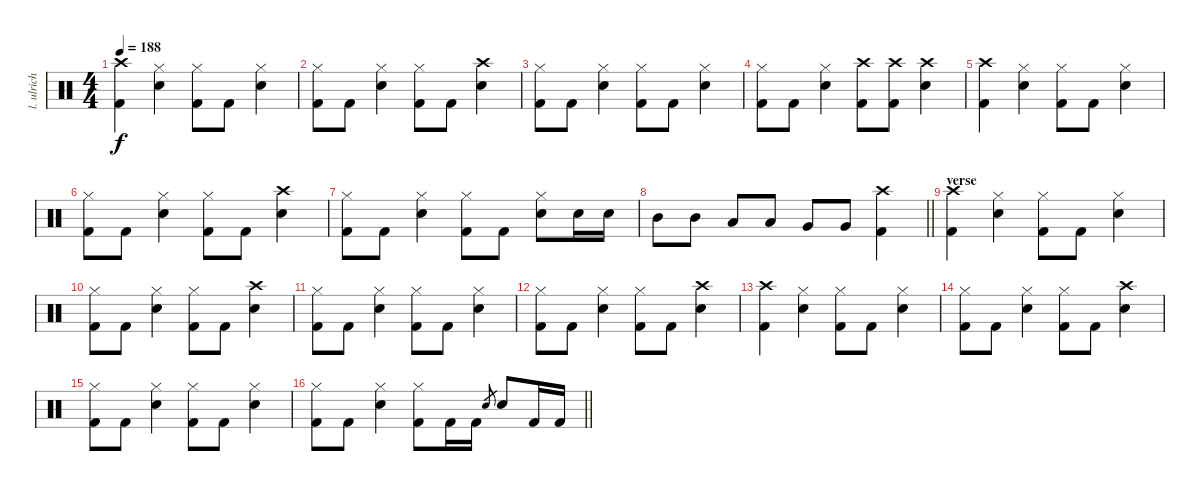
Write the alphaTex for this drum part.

\track ("l. ulrich - drums" "l. ulrich ") {instrument percussion}
\staff {score}
\articulation defaults
\ts (4 4)
\tempo 188
\clef neutral
\ks c
("Crash high (hit)" "Kick (hit) 2").4{dy f} ("Hi-Hat (closed)" "Snare (hit) 2").4 ("Hi-Hat (closed)" "Kick (hit) 2").8 "Kick (hit) 2".8 ("Hi-Hat (closed)" "Snare (hit) 2").4 |
("Hi-Hat (closed)" "Kick (hit) 2").8 "Kick (hit) 2".8 ("Hi-Hat (closed)" "Snare (hit) 2").4 ("Hi-Hat (closed)" "Kick (hit) 2").8 "Kick (hit) 2".8 ("Crash high (hit)" "Snare (hit) 2").4 |
("Hi-Hat (closed)" "Kick (hit) 2").8 "Kick (hit) 2".8 ("Hi-Hat (closed)" "Snare (hit) 2").4 ("Hi-Hat (closed)" "Kick (hit) 2").8 "Kick (hit) 2".8 ("Hi-Hat (closed)" "Snare (hit) 2").4 |
("Hi-Hat (closed)" "Kick (hit) 2").8 "Kick (hit) 2".8 ("Hi-Hat (closed)" "Snare (hit) 2").4 ("Crash high (hit)" "Kick (hit) 2").8 ("Crash high (hit)" "Kick (hit) 2").8 ("Crash high (hit)" "Snare (hit) 2").4 |
("Crash high (hit)" "Kick (hit) 2").4 ("Hi-Hat (closed)" "Snare (hit) 2").4 ("Hi-Hat (closed)" "Kick (hit) 2").8 "Kick (hit) 2".8 ("Hi-Hat (closed)" "Snare (hit) 2").4 |
("Hi-Hat (closed)" "Kick (hit) 2").8 "Kick (hit) 2".8 ("Hi-Hat (closed)" "Snare (hit) 2").4 ("Hi-Hat (closed)" "Kick (hit) 2").8 "Kick (hit) 2".8 ("Crash high (hit)" "Snare (hit) 2").4 |
("Hi-Hat (closed)" "Kick (hit) 2").8 "Kick (hit) 2".8 ("Hi-Hat (closed)" "Snare (hit) 2").4 ("Hi-Hat (closed)" "Kick (hit) 2").8 "Kick (hit) 2".8 ("Hi-Hat (closed)" "Snare (hit) 2").8 "Snare (hit) 2".16 "Snare (hit) 2".16 |
\barLineRight lightlight "Mid Tom (hit)".8 "Mid Tom (hit)".8 "Low Tom (hit)".8 "Low Tom (hit)".8 "Very Low Tom (hit)".8 "Very Low Tom (hit)".8
("Crash high (hit)" "Kick (hit) 2").4 |
\section ("" "verse")
("Crash high (hit)" "Kick (hit) 2").4 ("Hi-Hat (closed)" "Snare (hit) 2").4 ("Hi-Hat (closed)" "Kick (hit) 2").8 "Kick (hit) 2".8 ("Hi-Hat (closed)" "Snare (hit) 2").4 |
("Hi-Hat (closed)" "Kick (hit) 2").8 "Kick (hit) 2".8 ("Hi-Hat (closed)" "Snare (hit) 2").4 ("Hi-Hat (closed)" "Kick (hit) 2").8 "Kick (hit) 2".8 ("Crash high (hit)" "Snare (hit) 2").4 |
("Hi-Hat (closed)" "Kick (hit) 2").8 "Kick (hit) 2".8 ("Hi-Hat (closed)" "Snare (hit) 2").4 ("Hi-Hat (closed)" "Kick (hit) 2").8 "Kick (hit) 2".8 ("Hi-Hat (closed)" "Snare (hit) 2").4 |
("Hi-Hat (closed)" "Kick (hit) 2").8 "Kick (hit) 2".8 ("Hi-Hat (closed)" "Snare (hit) 2").4 ("Hi-Hat (closed)" "Kick (hit) 2").8 "Kick (hit) 2".8 ("Crash high (hit)" "Snare (hit) 2").4 |
("Crash high (hit)" "Kick (hit) 2").4 ("Hi-Hat (closed)" "Snare (hit) 2").4 ("Hi-Hat (closed)" "Kick (hit) 2").8 "Kick (hit) 2".8 ("Hi-Hat (closed)" "Snare (hit) 2").4 |
("Hi-Hat (closed)" "Kick (hit) 2").8 "Kick (hit) 2".8 ("Hi-Hat (closed)" "Snare (hit) 2").4 ("Hi-Hat (closed)" "Kick (hit) 2").8 "Kick (hit) 2".8 ("Crash high (hit)" "Snare (hit) 2").4 |
("Hi-Hat (closed)" "Kick (hit) 2").8 "Kick (hit) 2".8 ("Hi-Hat (closed)" "Snare (hit) 2").4 ("Hi-Hat (closed)" "Kick (hit) 2").8 "Kick (hit) 2".8 ("Hi-Hat (closed)" "Snare (hit) 2").4 |
\barLineRight lightlight
("Hi-Hat (closed)" "Kick (hit) 2").8 "Kick (hit) 2".8 ("Hi-Hat (closed)" "Snare (hit) 2").4 ("Hi-Hat (closed)" "Kick (hit) 2").8 "Kick (hit) 2".16 "Kick (hit) 2".16 "Snare (hit) 2".8{gr} "Snare (hit) 2".8 "Kick (hit) 2".16 "Kick (hit) 2".16
